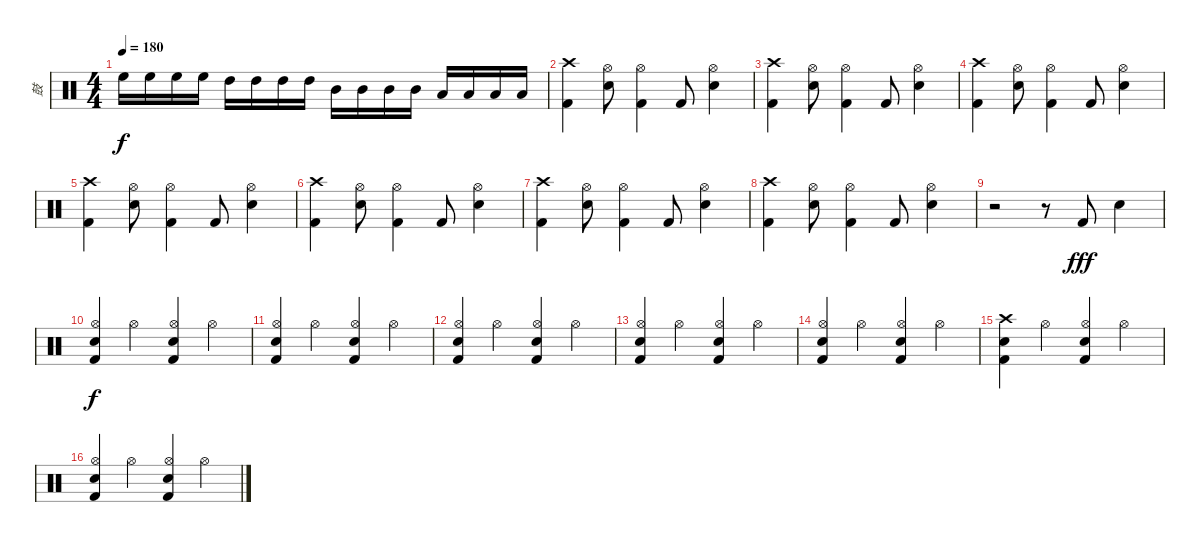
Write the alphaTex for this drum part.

\track ("鼓" "鼓") {instrument percussion}
\staff {score}
\articulation defaults
\ts (4 4)
\tempo 180
\clef neutral
\ks c "High Floor Tom (hit)".16{dy f} "High Floor Tom (hit)".16 "High Floor Tom (hit)".16 "High Floor Tom (hit)".16 "High Tom (hit)".16 "High Tom (hit)".16 "High Tom (hit)".16 "High Tom (hit)".16 "Mid Tom (hit)".16 "Mid Tom (hit)".16 "Mid Tom (hit)".16 "Mid Tom (hit)".16 "Low Tom (hit)".16 "Low Tom (hit)".16 "Low Tom (hit)".16 "Low Tom (hit)".16
|
("Crash high (hit)" "Kick (hit) 2").4 ("Hi-Hat (open)" "Snare (hit) 2").8 ("Hi-Hat (open)" "Kick (hit) 2").4 "Kick (hit) 2".8 ("Hi-Hat (open)" "Snare (hit) 2").4 |
("Crash high (hit)" "Kick (hit) 2").4 ("Hi-Hat (open)" "Snare (hit) 2").8 ("Hi-Hat (open)" "Kick (hit) 2").4 "Kick (hit) 2".8 ("Hi-Hat (open)" "Snare (hit) 2").4 |
("Crash high (hit)" "Kick (hit) 2").4 ("Hi-Hat (open)" "Snare (hit) 2").8 ("Hi-Hat (open)" "Kick (hit) 2").4 "Kick (hit) 2".8 ("Hi-Hat (open)" "Snare (hit) 2").4 |
("Crash high (hit)" "Kick (hit) 2").4 ("Hi-Hat (open)" "Snare (hit) 2").8 ("Hi-Hat (open)" "Kick (hit) 2").4 "Kick (hit) 2".8 ("Hi-Hat (open)" "Snare (hit) 2").4 |
("Crash high (hit)" "Kick (hit) 2").4 ("Hi-Hat (open)" "Snare (hit) 2").8 ("Hi-Hat (open)" "Kick (hit) 2").4 "Kick (hit) 2".8 ("Hi-Hat (open)" "Snare (hit) 2").4 |
("Crash high (hit)" "Kick (hit) 2").4 ("Hi-Hat (open)" "Snare (hit) 2").8 ("Hi-Hat (open)" "Kick (hit) 2").4 "Kick (hit) 2".8 ("Hi-Hat (open)" "Snare (hit) 2").4 |
("Crash high (hit)" "Kick (hit) 2").4 ("Hi-Hat (open)" "Snare (hit) 2").8 ("Hi-Hat (open)" "Kick (hit) 2").4 "Kick (hit) 2".8 ("Hi-Hat (open)" "Snare (hit) 2").4 |
r.2 r.8 "Kick (hit) 2".8{dy fff} "Snare (hit) 2".4 |
("Hi-Hat (open)" "Snare (hit) 2" "Kick (hit) 2").4{dy f} "Hi-Hat (open)".4 ("Hi-Hat (open)" "Snare (hit) 2" "Kick (hit) 2").4 "Hi-Hat (open)".4 |
("Hi-Hat (open)" "Snare (hit) 2" "Kick (hit) 2").4 "Hi-Hat (open)".4 ("Hi-Hat (open)" "Snare (hit) 2" "Kick (hit) 2").4 "Hi-Hat (open)".4 |
("Hi-Hat (open)" "Snare (hit) 2" "Kick (hit) 2").4 "Hi-Hat (open)".4 ("Hi-Hat (open)" "Snare (hit) 2" "Kick (hit) 2").4 "Hi-Hat (open)".4 |
("Hi-Hat (open)" "Snare (hit) 2" "Kick (hit) 2").4 "Hi-Hat (open)".4 ("Hi-Hat (open)" "Snare (hit) 2" "Kick (hit) 2").4 "Hi-Hat (open)".4 |
("Hi-Hat (open)" "Snare (hit) 2" "Kick (hit) 2").4 "Hi-Hat (open)".4 ("Hi-Hat (open)" "Snare (hit) 2" "Kick (hit) 2").4 "Hi-Hat (open)".4 |
("Crash high (hit)" "Snare (hit) 2" "Kick (hit) 2").4 "Hi-Hat (open)".4 ("Hi-Hat (open)" "Snare (hit) 2" "Kick (hit) 2").4 "Hi-Hat (open)".4 |
("Hi-Hat (open)" "Snare (hit) 2" "Kick (hit) 2").4 "Hi-Hat (open)".4 ("Hi-Hat (open)" "Snare (hit) 2" "Kick (hit) 2").4 "Hi-Hat (open)".4
